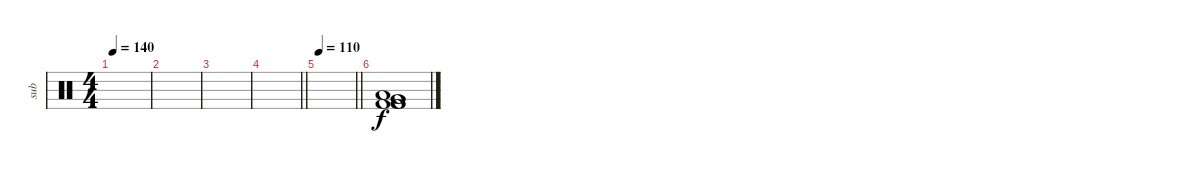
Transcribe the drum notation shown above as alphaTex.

\track ("sub" "sub") {instrument percussion}
\staff {score}
\articulation defaults
\ts (4 4)
\tempo 140
\clef neutral
\ks c
|
|
|
\barLineRight lightlight
|
\tempo 110
\barLineRight lightlight
|
\section ("" "")
("Low Floor Tom (hit)" "Very Low Tom (hit)" "Very Low Tom (hit)" "Kick (hit) 2" "Kick (hit) 2" "Kick (hit) 2").1
